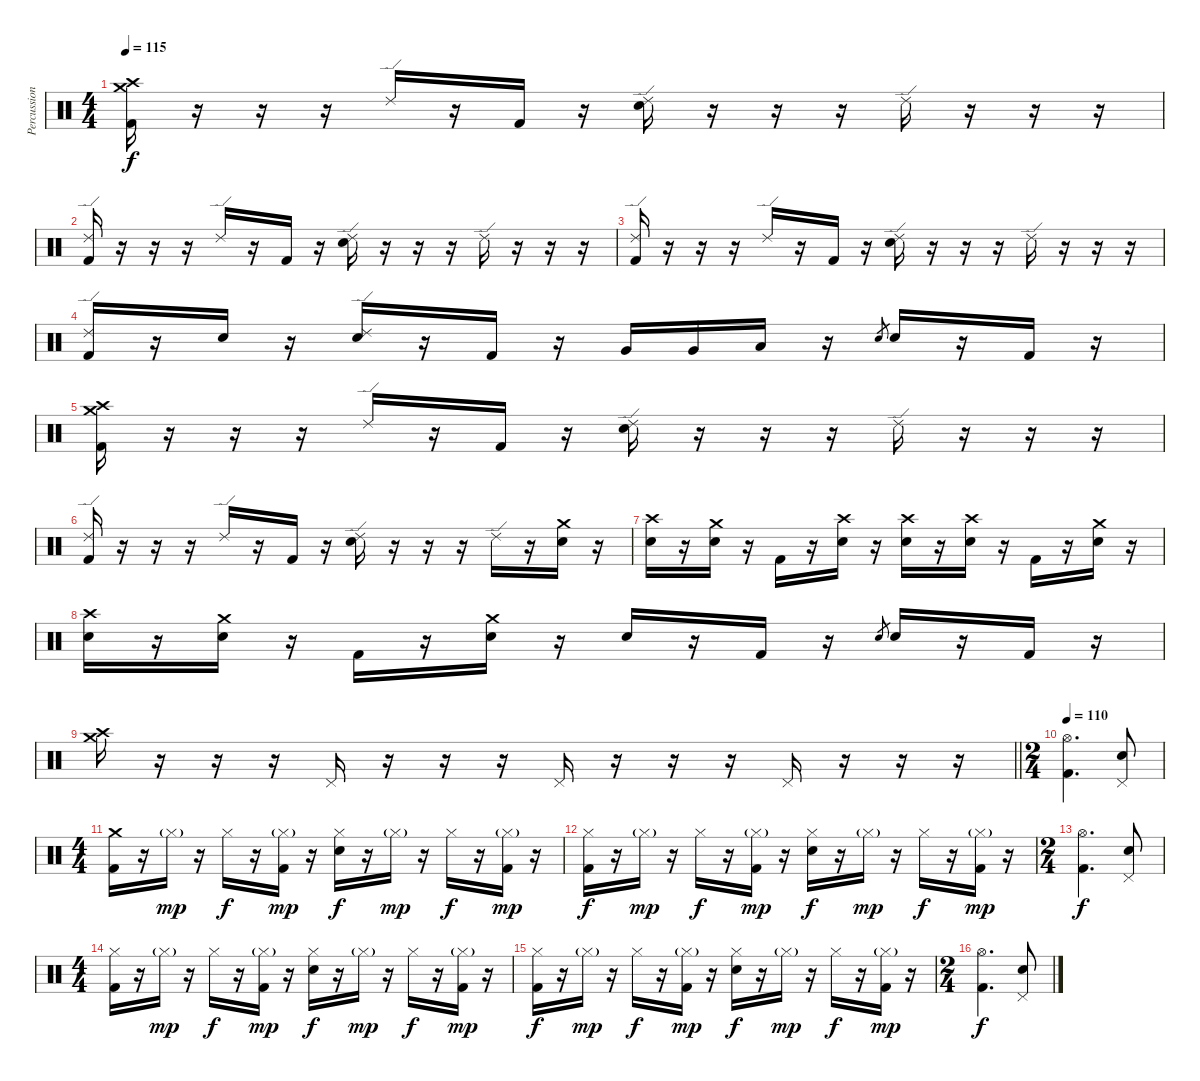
\track ("Percussion" "Percussion") {instrument percussion}
\staff {score}
\articulation defaults
\ts (4 4)
\tempo 115
\clef neutral
\ks c
("Crash medium (hit)" "Crash high (hit)" "Kick (hit) 2").16{dy f} r.16 r.16 r.16 "Ride (edge) 2".16 r.16 "Kick (hit) 2".16 r.16 ("Ride (edge) 2" "Electric Snare (hit)").16 r.16 r.16 r.16 "Ride (edge) 2".16 r.16 r.16 r.16 |
("Ride (edge) 2" "Kick (hit) 2").16 r.16 r.16 r.16 "Ride (edge) 2".16 r.16 "Kick (hit) 2".16 r.16 ("Ride (edge) 2" "Electric Snare (hit)").16 r.16 r.16 r.16 "Ride (edge) 2".16 r.16 r.16 r.16 |
("Ride (edge) 2" "Kick (hit) 2").16 r.16 r.16 r.16 "Ride (edge) 2".16 r.16 "Kick (hit) 2".16 r.16 ("Ride (edge) 2" "Electric Snare (hit)").16 r.16 r.16 r.16 "Ride (edge) 2".16 r.16 r.16 r.16 |
("Ride (edge) 2" "Kick (hit) 2").16 r.16 "Electric Snare (hit)".16 r.16 ("Ride (edge) 2" "Electric Snare (hit)").16 r.16 "Kick (hit) 2".16 r.16 "Very Low Tom (hit)".16 "Very Low Tom (hit)".16 "Low Tom (hit)".16 r.16 "Electric Snare (hit)".8{gr} "Electric Snare (hit)".16 r.16 "Kick (hit) 2".16 r.16 |
("Crash medium (hit)" "Crash high (hit)" "Kick (hit) 2").16 r.16 r.16 r.16 "Ride (edge) 2".16 r.16 "Kick (hit) 2".16 r.16 ("Ride (edge) 2" "Electric Snare (hit)").16 r.16 r.16 r.16 "Ride (edge) 2".16 r.16 r.16 r.16 |
("Ride (edge) 2" "Kick (hit) 2").16 r.16 r.16 r.16 "Ride (edge) 2".16 r.16 "Kick (hit) 2".16 r.16 ("Ride (edge) 2" "Electric Snare (hit)").16 r.16 r.16 r.16 "Ride (edge) 2".16 r.16 ("Crash medium (hit)" "Electric Snare (hit)").16 r.16 |
("Crash high (hit)" "Electric Snare (hit)").16 r.16 ("Crash medium (hit)" "Electric Snare (hit)").16 r.16 "Kick (hit) 2".16 r.16 ("Crash high (hit)" "Electric Snare (hit)").16 r.16 ("Crash high (hit)" "Electric Snare (hit)").16 r.16 ("Crash high (hit)" "Electric Snare (hit)").16 r.16 "Kick (hit) 2".16 r.16 ("Crash medium (hit)" "Electric Snare (hit)").16 r.16 |
("Crash high (hit)" "Electric Snare (hit)").16 r.16 ("Crash medium (hit)" "Electric Snare (hit)").16 r.16 "Kick (hit) 2".16 r.16 ("Crash medium (hit)" "Electric Snare (hit)").16 r.16 "Electric Snare (hit)".16 r.16 "Kick (hit) 2".16 r.16 "Electric Snare (hit)".8{gr} "Electric Snare (hit)".16 r.16 "Kick (hit) 2".16 r.16 |
\barLineRight lightlight
("Crash medium (hit)" "Crash high (hit)").16 r.16 r.16 r.16 "Pedal Hi-Hat (hit)".16 r.16 r.16 r.16 "Pedal Hi-Hat (hit)".16 r.16 r.16 r.16 "Pedal Hi-Hat (hit)".16 r.16 r.16 r.16 |
\ts (2 4)
\section ("" "")
\tempo 110
("Hi-Hat (open)" "Kick (hit) 2").4{d} ("Pedal Hi-Hat (hit)" "Electric Snare (hit)").8 |
\ts (4 4)
("Crash medium (hit)" "Kick (hit) 2").16 r.16 "Hi-Hat (closed)"{g}.16{dy mp} r.16 "Hi-Hat (closed)".16{dy f} r.16 ("Hi-Hat (closed)"{g} "Kick (hit) 2").16{dy mp} r.16 ("Hi-Hat (closed)" "Electric Snare (hit)").16{dy f} r.16 "Hi-Hat (closed)"{g}.16{dy mp} r.16 "Hi-Hat (closed)".16{dy f} r.16 ("Hi-Hat (closed)"{g} "Kick (hit) 2").16{dy mp} r.16 |
("Hi-Hat (closed)" "Kick (hit) 2").16{dy f} r.16 "Hi-Hat (closed)"{g}.16{dy mp} r.16 "Hi-Hat (closed)".16{dy f} r.16 ("Hi-Hat (closed)"{g} "Kick (hit) 2").16{dy mp} r.16 ("Hi-Hat (closed)" "Electric Snare (hit)").16{dy f} r.16 "Hi-Hat (closed)"{g}.16{dy mp} r.16 "Hi-Hat (closed)".16{dy f} r.16 ("Hi-Hat (closed)"{g} "Kick (hit) 2").16{dy mp} r.16 |
\ts (2 4)
("Hi-Hat (open)" "Kick (hit) 2").4{d dy f} ("Pedal Hi-Hat (hit)" "Electric Snare (hit)").8 |
\ts (4 4)
("Hi-Hat (closed)" "Kick (hit) 2").16 r.16 "Hi-Hat (closed)"{g}.16{dy mp} r.16 "Hi-Hat (closed)".16{dy f} r.16 ("Hi-Hat (closed)"{g} "Kick (hit) 2").16{dy mp} r.16 ("Hi-Hat (closed)" "Electric Snare (hit)").16{dy f} r.16 "Hi-Hat (closed)"{g}.16{dy mp} r.16 "Hi-Hat (closed)".16{dy f} r.16 ("Hi-Hat (closed)"{g} "Kick (hit) 2").16{dy mp} r.16 |
("Hi-Hat (closed)" "Kick (hit) 2").16{dy f} r.16 "Hi-Hat (closed)"{g}.16{dy mp} r.16 "Hi-Hat (closed)".16{dy f} r.16 ("Hi-Hat (closed)"{g} "Kick (hit) 2").16{dy mp} r.16 ("Hi-Hat (closed)" "Electric Snare (hit)").16{dy f} r.16 "Hi-Hat (closed)"{g}.16{dy mp} r.16 "Hi-Hat (closed)".16{dy f} r.16 ("Hi-Hat (closed)"{g} "Kick (hit) 2").16{dy mp} r.16 |
\ts (2 4)
("Hi-Hat (open)" "Kick (hit) 2").4{d dy f} ("Pedal Hi-Hat (hit)" "Electric Snare (hit)").8
